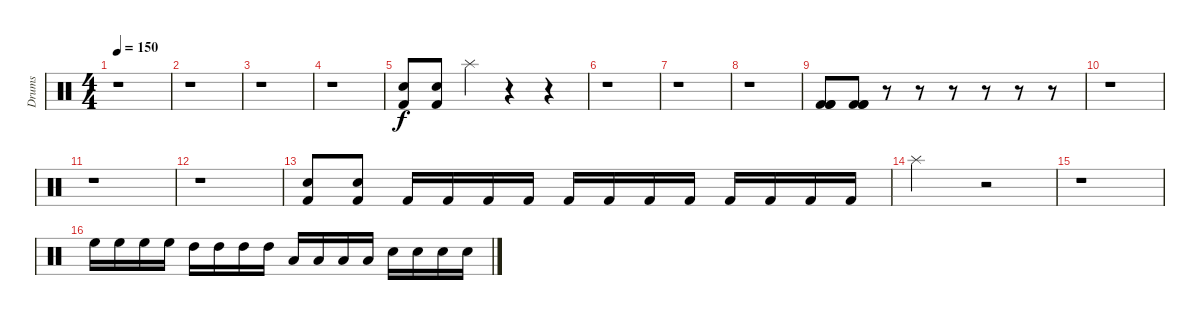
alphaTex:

\track ("Drums" "Drums") {instrument percussion}
\staff {score}
\articulation defaults
\ts (4 4)
\tempo 150
\clef neutral
\ks c
r.1{dy f} |
r.1 |
r.1 |
r.1 |
("Snare (hit) 2" "Kick (hit) 2").8 ("Snare (hit) 2" "Kick (hit) 2").8 "Splash (hit)".4 r.4 r.4 |
r.1 |
r.1 |
r.1 |
("Kick (hit) 2" "Kick (hit) 2" "Kick (hit) 2").8 ("Kick (hit) 2" "Kick (hit) 2" "Kick (hit) 2").8 r.8 r.8 r.8 r.8 r.8 r.8 |
r.1 |
r.1 |
r.1 |
("Snare (hit) 2" "Kick (hit) 2").8 ("Snare (hit) 2" "Kick (hit) 2").8 "Kick (hit) 2".16 "Kick (hit) 2".16 "Kick (hit) 2".16 "Kick (hit) 2".16 "Kick (hit) 2".16 "Kick (hit) 2".16 "Kick (hit) 2".16 "Kick (hit) 2".16 "Kick (hit) 2".16 "Kick (hit) 2".16 "Kick (hit) 2".16 "Kick (hit) 2".16 |
"Splash (hit)".2 r.2 |
r.1 |
"High Floor Tom (hit)".16 "High Floor Tom (hit)".16 "High Floor Tom (hit)".16 "High Floor Tom (hit)".16 "High Tom (hit)".16 "High Tom (hit)".16 "High Tom (hit)".16 "High Tom (hit)".16 "Low Tom (hit)".16 "Low Tom (hit)".16 "Low Tom (hit)".16 "Low Tom (hit)".16 "Snare (hit) 2".16 "Snare (hit) 2".16 "Snare (hit) 2".16 "Snare (hit) 2".16
